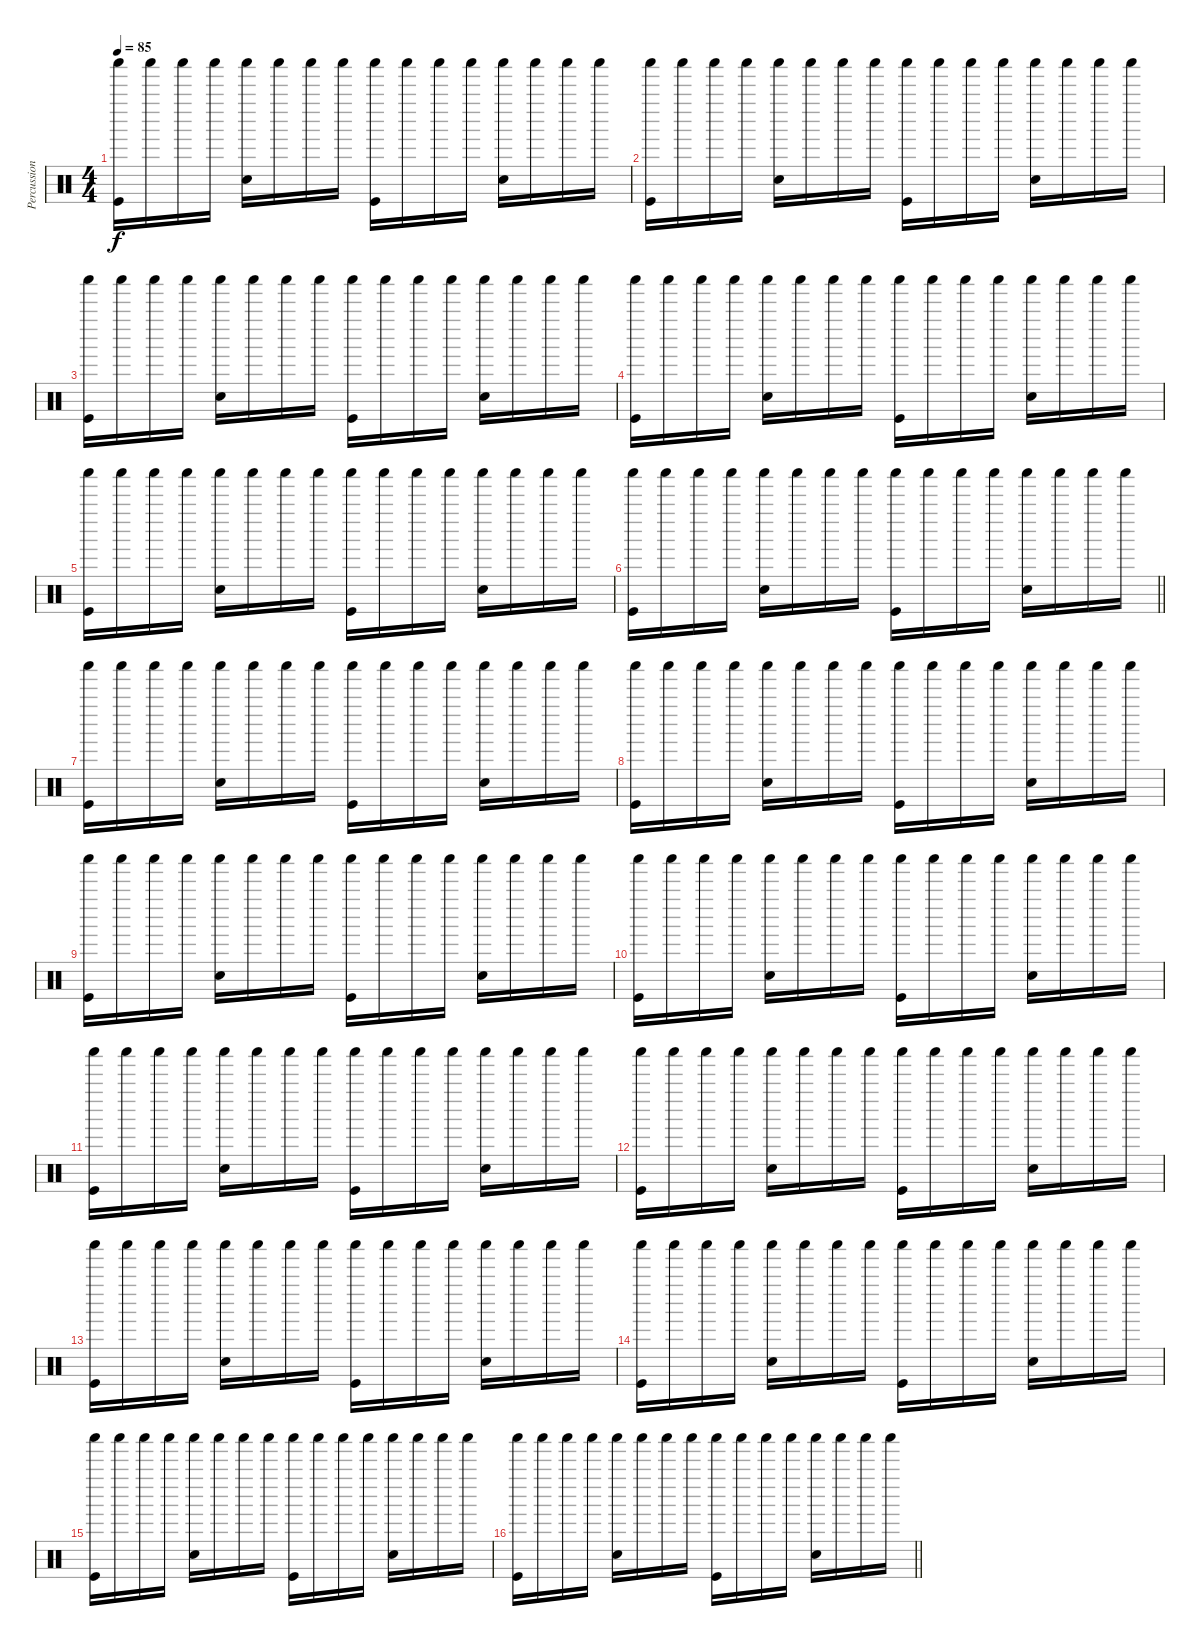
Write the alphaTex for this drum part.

\track ("Percussion" "Percussion") {instrument percussion}
\staff {score}
\articulation defaults
\ts (4 4)
\tempo 85
\clef neutral
\ks c
("Shaker (hit)" "Kick (hit)").16{dy f} "Shaker (hit)".16 "Shaker (hit)".16 "Shaker (hit)".16 ("Shaker (hit)" "Snare (hit) 2").16 "Shaker (hit)".16 "Shaker (hit)".16 "Shaker (hit)".16 ("Shaker (hit)" "Kick (hit)").16 "Shaker (hit)".16 "Shaker (hit)".16 "Shaker (hit)".16 ("Shaker (hit)" "Snare (hit) 2").16 "Shaker (hit)".16 "Shaker (hit)".16 "Shaker (hit)".16 |
("Shaker (hit)" "Kick (hit)").16 "Shaker (hit)".16 "Shaker (hit)".16 "Shaker (hit)".16 ("Shaker (hit)" "Snare (hit) 2").16 "Shaker (hit)".16 "Shaker (hit)".16 "Shaker (hit)".16 ("Shaker (hit)" "Kick (hit)").16 "Shaker (hit)".16 "Shaker (hit)".16 "Shaker (hit)".16 ("Shaker (hit)" "Snare (hit) 2").16 "Shaker (hit)".16 "Shaker (hit)".16 "Shaker (hit)".16 |
("Shaker (hit)" "Kick (hit)").16 "Shaker (hit)".16 "Shaker (hit)".16 "Shaker (hit)".16 ("Shaker (hit)" "Snare (hit) 2").16 "Shaker (hit)".16 "Shaker (hit)".16 "Shaker (hit)".16 ("Shaker (hit)" "Kick (hit)").16 "Shaker (hit)".16 "Shaker (hit)".16 "Shaker (hit)".16 ("Shaker (hit)" "Snare (hit) 2").16 "Shaker (hit)".16 "Shaker (hit)".16 "Shaker (hit)".16 |
("Shaker (hit)" "Kick (hit)").16 "Shaker (hit)".16 "Shaker (hit)".16 "Shaker (hit)".16 ("Shaker (hit)" "Snare (hit) 2").16 "Shaker (hit)".16 "Shaker (hit)".16 "Shaker (hit)".16 ("Shaker (hit)" "Kick (hit)").16 "Shaker (hit)".16 "Shaker (hit)".16 "Shaker (hit)".16 ("Shaker (hit)" "Snare (hit) 2").16 "Shaker (hit)".16 "Shaker (hit)".16 "Shaker (hit)".16 |
("Shaker (hit)" "Kick (hit)").16 "Shaker (hit)".16 "Shaker (hit)".16 "Shaker (hit)".16 ("Shaker (hit)" "Snare (hit) 2").16 "Shaker (hit)".16 "Shaker (hit)".16 "Shaker (hit)".16 ("Shaker (hit)" "Kick (hit)").16 "Shaker (hit)".16 "Shaker (hit)".16 "Shaker (hit)".16 ("Shaker (hit)" "Snare (hit) 2").16 "Shaker (hit)".16 "Shaker (hit)".16 "Shaker (hit)".16 |
\barLineRight lightlight
("Shaker (hit)" "Kick (hit)").16 "Shaker (hit)".16 "Shaker (hit)".16 "Shaker (hit)".16 ("Shaker (hit)" "Snare (hit) 2").16 "Shaker (hit)".16 "Shaker (hit)".16 "Shaker (hit)".16 ("Shaker (hit)" "Kick (hit)").16 "Shaker (hit)".16 "Shaker (hit)".16 "Shaker (hit)".16 ("Shaker (hit)" "Snare (hit) 2").16 "Shaker (hit)".16 "Shaker (hit)".16 "Shaker (hit)".16 |
("Shaker (hit)" "Kick (hit)").16 "Shaker (hit)".16 "Shaker (hit)".16 "Shaker (hit)".16 ("Shaker (hit)" "Snare (hit) 2").16 "Shaker (hit)".16 "Shaker (hit)".16 "Shaker (hit)".16 ("Shaker (hit)" "Kick (hit)").16 "Shaker (hit)".16 "Shaker (hit)".16 "Shaker (hit)".16 ("Shaker (hit)" "Snare (hit) 2").16 "Shaker (hit)".16 "Shaker (hit)".16 "Shaker (hit)".16 |
("Shaker (hit)" "Kick (hit)").16 "Shaker (hit)".16 "Shaker (hit)".16 "Shaker (hit)".16 ("Shaker (hit)" "Snare (hit) 2").16 "Shaker (hit)".16 "Shaker (hit)".16 "Shaker (hit)".16 ("Shaker (hit)" "Kick (hit)").16 "Shaker (hit)".16 "Shaker (hit)".16 "Shaker (hit)".16 ("Shaker (hit)" "Snare (hit) 2").16 "Shaker (hit)".16 "Shaker (hit)".16 "Shaker (hit)".16 |
("Shaker (hit)" "Kick (hit)").16 "Shaker (hit)".16 "Shaker (hit)".16 "Shaker (hit)".16 ("Shaker (hit)" "Snare (hit) 2").16 "Shaker (hit)".16 "Shaker (hit)".16 "Shaker (hit)".16 ("Shaker (hit)" "Kick (hit)").16 "Shaker (hit)".16 "Shaker (hit)".16 "Shaker (hit)".16 ("Shaker (hit)" "Snare (hit) 2").16 "Shaker (hit)".16 "Shaker (hit)".16 "Shaker (hit)".16 |
("Shaker (hit)" "Kick (hit)").16 "Shaker (hit)".16 "Shaker (hit)".16 "Shaker (hit)".16 ("Shaker (hit)" "Snare (hit) 2").16 "Shaker (hit)".16 "Shaker (hit)".16 "Shaker (hit)".16 ("Shaker (hit)" "Kick (hit)").16 "Shaker (hit)".16 "Shaker (hit)".16 "Shaker (hit)".16 ("Shaker (hit)" "Snare (hit) 2").16 "Shaker (hit)".16 "Shaker (hit)".16 "Shaker (hit)".16 |
("Shaker (hit)" "Kick (hit)").16 "Shaker (hit)".16 "Shaker (hit)".16 "Shaker (hit)".16 ("Shaker (hit)" "Snare (hit) 2").16 "Shaker (hit)".16 "Shaker (hit)".16 "Shaker (hit)".16 ("Shaker (hit)" "Kick (hit)").16 "Shaker (hit)".16 "Shaker (hit)".16 "Shaker (hit)".16 ("Shaker (hit)" "Snare (hit) 2").16 "Shaker (hit)".16 "Shaker (hit)".16 "Shaker (hit)".16 |
("Shaker (hit)" "Kick (hit)").16 "Shaker (hit)".16 "Shaker (hit)".16 "Shaker (hit)".16 ("Shaker (hit)" "Snare (hit) 2").16 "Shaker (hit)".16 "Shaker (hit)".16 "Shaker (hit)".16 ("Shaker (hit)" "Kick (hit)").16 "Shaker (hit)".16 "Shaker (hit)".16 "Shaker (hit)".16 ("Shaker (hit)" "Snare (hit) 2").16 "Shaker (hit)".16 "Shaker (hit)".16 "Shaker (hit)".16 |
("Shaker (hit)" "Kick (hit)").16 "Shaker (hit)".16 "Shaker (hit)".16 "Shaker (hit)".16 ("Shaker (hit)" "Snare (hit) 2").16 "Shaker (hit)".16 "Shaker (hit)".16 "Shaker (hit)".16 ("Shaker (hit)" "Kick (hit)").16 "Shaker (hit)".16 "Shaker (hit)".16 "Shaker (hit)".16 ("Shaker (hit)" "Snare (hit) 2").16 "Shaker (hit)".16 "Shaker (hit)".16 "Shaker (hit)".16 |
("Shaker (hit)" "Kick (hit)").16 "Shaker (hit)".16 "Shaker (hit)".16 "Shaker (hit)".16 ("Shaker (hit)" "Snare (hit) 2").16 "Shaker (hit)".16 "Shaker (hit)".16 "Shaker (hit)".16 ("Shaker (hit)" "Kick (hit)").16 "Shaker (hit)".16 "Shaker (hit)".16 "Shaker (hit)".16 ("Shaker (hit)" "Snare (hit) 2").16 "Shaker (hit)".16 "Shaker (hit)".16 "Shaker (hit)".16 |
("Shaker (hit)" "Kick (hit)").16 "Shaker (hit)".16 "Shaker (hit)".16 "Shaker (hit)".16 ("Shaker (hit)" "Snare (hit) 2").16 "Shaker (hit)".16 "Shaker (hit)".16 "Shaker (hit)".16 ("Shaker (hit)" "Kick (hit)").16 "Shaker (hit)".16 "Shaker (hit)".16 "Shaker (hit)".16 ("Shaker (hit)" "Snare (hit) 2").16 "Shaker (hit)".16 "Shaker (hit)".16 "Shaker (hit)".16 |
\barLineRight lightlight
("Shaker (hit)" "Kick (hit)").16 "Shaker (hit)".16 "Shaker (hit)".16 "Shaker (hit)".16 ("Shaker (hit)" "Snare (hit) 2").16 "Shaker (hit)".16 "Shaker (hit)".16 "Shaker (hit)".16 ("Shaker (hit)" "Kick (hit)").16 "Shaker (hit)".16 "Shaker (hit)".16 "Shaker (hit)".16 ("Shaker (hit)" "Snare (hit) 2").16 "Shaker (hit)".16 "Shaker (hit)".16 "Shaker (hit)".16
